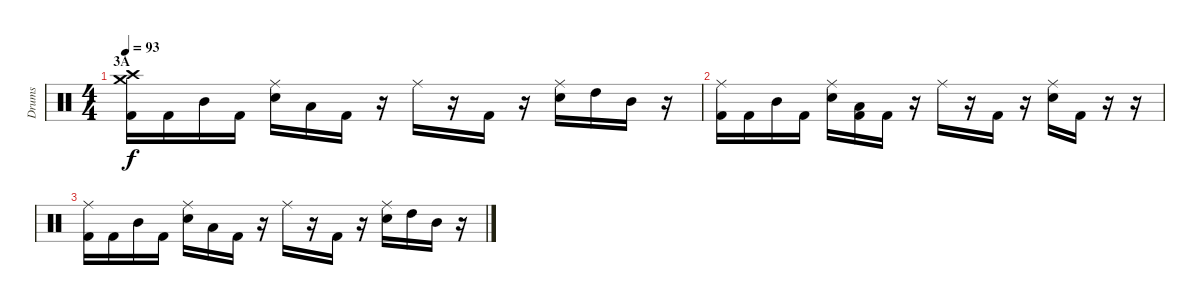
\track ("Drums" "Drums") {instrument percussion}
\staff {score}
\articulation defaults
\ts (4 4)
\section ("" "3A")
\tempo 93
\clef neutral
\ks c
("Crash high (hit)" "Crash medium (hit)" "Kick (hit) 2").16{dy f volume 0} "Kick (hit) 2".16 "Mid Tom (hit)".16 "Kick (hit) 2".16 ("Ride (middle)" "Electric Snare (hit)").16 "Low Floor Tom (hit)".16 "Kick (hit) 2".16 r.16 "Ride (middle)".16 r.16 "Kick (hit) 2".16 r.16 ("Ride (middle)" "Electric Snare (hit)").16 "High Tom (hit)".16 "Mid Tom (hit)".16 r.16 |
("Ride (middle)" "Kick (hit) 2").16 "Kick (hit) 2".16 "Mid Tom (hit)".16 "Kick (hit) 2".16 ("Ride (middle)" "Electric Snare (hit)").16 ("Low Floor Tom (hit)" "Kick (hit) 2").16 "Kick (hit) 2".16 r.16 "Ride (middle)".16 r.16 "Kick (hit) 2".16 r.16 ("Ride (middle)" "Electric Snare (hit)").16 "Kick (hit) 2".16 r.16 r.16 |
("Ride (middle)" "Kick (hit) 2").16 "Kick (hit) 2".16 "Mid Tom (hit)".16 "Kick (hit) 2".16 ("Ride (middle)" "Electric Snare (hit)").16 "Low Floor Tom (hit)".16 "Kick (hit) 2".16 r.16 "Ride (middle)".16 r.16 "Kick (hit) 2".16 r.16 ("Ride (middle)" "Electric Snare (hit)").16 "High Tom (hit)".16 "Mid Tom (hit)".16 r.16
